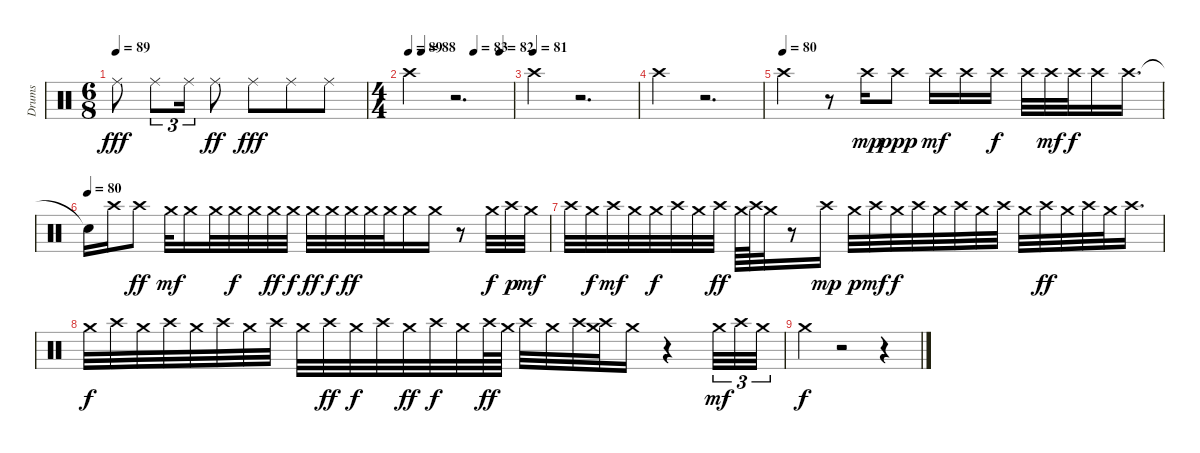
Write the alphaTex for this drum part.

\track ("Drums" "Drums") {instrument percussion}
\staff {score}
\articulation defaults
\ts (6 8)
\tempo 89
\clef neutral
\ks c "Ride (middle)".8{dy fff} "Ride (middle)".8{tu (3 2)} "Ride (middle)".16{tu (3 2)} "Ride (middle)".8{dy ff} "Ride (middle)".8{dy fff} "Ride (middle)".8 "Ride (middle)".8
|
\ts (4 4)
\tempo 89
\tempo (88 0.125)
\tempo (83 0.625)
\tempo (82 0.875)
"Crash high (hit)".4 r.2{d} |
\tempo (81)
"Crash high (hit)".4 r.2{d} |
"Crash high (hit)".4 r.2{d} |
\tempo (80)
"Crash high (hit)".4 r.8 "Crash high (hit)".16{dy mp} "Crash high (hit)".8{dy ppp} "Crash high (hit)".16{dy mf} "Crash high (hit)".16 "Crash high (hit)".16{dy f} "Crash high (hit)".32 "Crash high (hit)".32{dy mf} "Crash high (hit)".32{dy f} "Crash high (hit)".16 "Crash high (hit)".16{d} |
\tempo (80)
"Snare (hit)"{t}.16 "Crash high (hit)".16 "Crash high (hit)".8{dy ff} "Crash medium (hit)".32{dy mf} "Crash medium (hit)".16 "Crash medium (hit)".32 "Crash medium (hit)".32{dy f} "Crash medium (hit)".32 "Crash medium (hit)".32{dy ff} "Crash medium (hit)".32{dy f} "Crash medium (hit)".32{dy ff} "Crash medium (hit)".32{dy f} "Crash medium (hit)".32{dy ff} "Crash medium (hit)".32 "Crash medium (hit)".32 "Crash medium (hit)".16 "Crash medium (hit)".16 r.8 "Crash medium (hit)".32{dy f} "Crash high (hit)".32{dy p} "Crash medium (hit)".32{dy mf} |
"Crash high (hit)".32 "Crash medium (hit)".32{dy f} "Crash high (hit)".32{dy mf} "Crash medium (hit)".32 "Crash medium (hit)".32{dy f} "Crash high (hit)".32 "Crash medium (hit)".32 "Crash high (hit)".32{dy ff} "Crash medium (hit)".64 "Crash high (hit)".64 "Crash medium (hit)".32 r.8 "Crash high (hit)".16{dy mp} "Crash medium (hit)".32{dy p} "Crash high (hit)".32{dy mf} "Crash medium (hit)".32{dy f} "Crash high (hit)".32 "Crash medium (hit)".32 "Crash high (hit)".32 "Crash medium (hit)".32 "Crash high (hit)".32 "Crash medium (hit)".32 "Crash high (hit)".32{dy ff} "Crash medium (hit)".32 "Crash high (hit)".32 "Crash medium (hit)".32 "Crash high (hit)".16{d} |
"Crash medium (hit)".32{dy f} "Crash high (hit)".32 "Crash medium (hit)".32 "Crash high (hit)".32 "Crash medium (hit)".32 "Crash high (hit)".32 "Crash medium (hit)".32 "Crash high (hit)".32 "Crash medium (hit)".32 "Crash high (hit)".32{dy ff} "Crash medium (hit)".32{dy f} "Crash high (hit)".32 "Crash medium (hit)".32{dy ff} "Crash high (hit)".32{dy f} "Crash medium (hit)".32 "Crash high (hit)".64{dy ff} "Crash medium (hit)".64 "Crash high (hit)".32 "Crash medium (hit)".32 "Crash high (hit)".32 ("Crash medium (hit)" "Crash high (hit)").32 "Crash medium (hit)".16 r.4 "Crash medium (hit)".32{tu (3 2) dy mf} "Crash high (hit)".32{tu (3 2)} "Crash medium (hit)".32{tu (3 2)} |
"Crash medium (hit)".4{dy f} r.2 r.4
